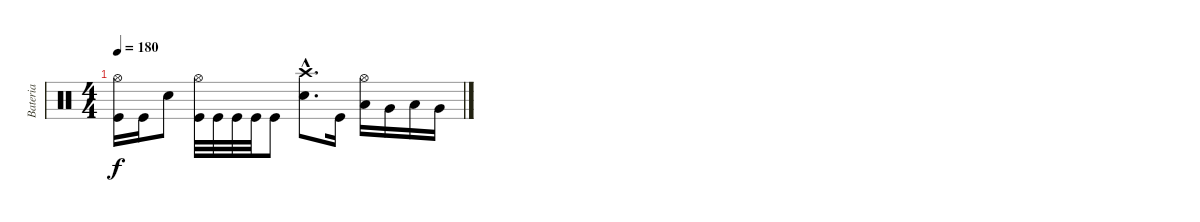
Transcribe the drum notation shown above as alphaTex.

\track ("Bateria" "Bateria") {instrument percussion}
\staff {score}
\articulation defaults
\ts (4 4)
\tempo 180
\clef neutral
\ks c
("Hi-Hat (open)" "Kick (hit)").16{dy f} "Kick (hit)".16 "Electric Snare (hit)".8 ("Hi-Hat (open)" "Kick (hit)").32 "Kick (hit)".32 "Kick (hit)".32 "Kick (hit)".32 "Kick (hit)".8 ("Crash high (hit)"{hac} "Electric Snare (hit)"{hac}).8{d} "Kick (hit)".16 ("Hi-Hat (open)" "Low Tom (hit)").16 "Very Low Tom (hit)".16 "Low Tom (hit)".16 "Very Low Tom (hit)".16
